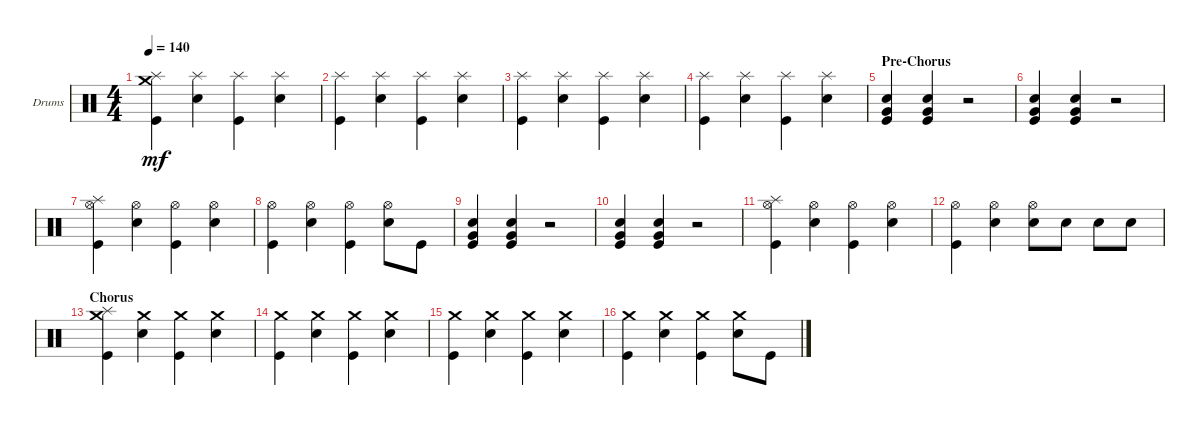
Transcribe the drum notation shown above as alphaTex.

\defaultSystemsLayout 4
\bracketExtendMode groupsimilarinstruments
\firstSystemTrackNameOrientation horizontal
\otherSystemsTrackNameOrientation horizontal
\track ("Drumkit" "Drums") {instrument percussion}
\staff {score}
\articulation defaults
\ts (4 4)
\tempo 140
\clef neutral
\ks c
("Splash (hit)" "Crash medium (hit)" "Kick (hit)").4{dy mf} ("Splash (hit)" "Snare (hit) 2").4 ("Splash (hit)" "Kick (hit)").4 ("Splash (hit)" "Snare (hit) 2").4 |
("Kick (hit)" "Splash (hit)").4 ("Splash (hit)" "Snare (hit) 2").4 ("Splash (hit)" "Kick (hit)").4 ("Splash (hit)" "Snare (hit) 2").4 |
("Kick (hit)" "Splash (hit)").4 ("Splash (hit)" "Snare (hit) 2").4 ("Splash (hit)" "Kick (hit)").4 ("Splash (hit)" "Snare (hit) 2").4 |
("Kick (hit)" "Splash (hit)").4 ("Splash (hit)" "Snare (hit) 2").4 ("Splash (hit)" "Kick (hit)").4 ("Splash (hit)" "Snare (hit) 2").4 |
\section ("" "Pre-Chorus")
("Kick (hit)" "Snare (hit) 2" "Very Low Tom (hit)").4 ("Snare (hit) 2" "Kick (hit)" "Very Low Tom (hit)").4 r.2 |
("Kick (hit)" "Snare (hit) 2" "Very Low Tom (hit)").4 ("Snare (hit) 2" "Kick (hit)" "Very Low Tom (hit)").4 r.2 |
("Splash (hit)" "Hi-Hat (open)" "Kick (hit)").4 ("Hi-Hat (open)" "Snare (hit) 2").4 ("Kick (hit)" "Hi-Hat (open)").4 ("Snare (hit) 2" "Hi-Hat (open)").4 |
("Hi-Hat (open)" "Kick (hit)").4 ("Hi-Hat (open)" "Snare (hit) 2").4 ("Kick (hit)" "Hi-Hat (open)").4 ("Snare (hit) 2" "Hi-Hat (open)").8 "Kick (hit)".8 |
("Kick (hit)" "Snare (hit) 2" "Very Low Tom (hit)").4 ("Snare (hit) 2" "Kick (hit)" "Very Low Tom (hit)").4 r.2 |
("Kick (hit)" "Snare (hit) 2" "Very Low Tom (hit)").4 ("Snare (hit) 2" "Kick (hit)" "Very Low Tom (hit)").4 r.2 |
("Splash (hit)" "Hi-Hat (open)" "Kick (hit)").4 ("Hi-Hat (open)" "Snare (hit) 2").4 ("Kick (hit)" "Hi-Hat (open)").4 ("Snare (hit) 2" "Hi-Hat (open)").4 |
("Hi-Hat (open)" "Kick (hit)").4 ("Hi-Hat (open)" "Snare (hit) 2").4 ("Hi-Hat (open)" "Snare (hit) 2").8 "Snare (hit) 2".8 "Snare (hit) 2".8 "Snare (hit) 2".8 |
\section ("" "Chorus")
("Splash (hit)" "Kick (hit)" "Crash medium (hit)").4 ("Snare (hit) 2" "Crash medium (hit)").4 ("Kick (hit)" "Crash medium (hit)").4 ("Snare (hit) 2" "Crash medium (hit)").4 |
("Kick (hit)" "Crash medium (hit)").4 ("Snare (hit) 2" "Crash medium (hit)").4 ("Kick (hit)" "Crash medium (hit)").4 ("Snare (hit) 2" "Crash medium (hit)").4 |
("Kick (hit)" "Crash medium (hit)").4 ("Snare (hit) 2" "Crash medium (hit)").4 ("Kick (hit)" "Crash medium (hit)").4 ("Snare (hit) 2" "Crash medium (hit)").4 |
("Kick (hit)" "Crash medium (hit)").4 ("Snare (hit) 2" "Crash medium (hit)").4 ("Kick (hit)" "Crash medium (hit)").4 ("Snare (hit) 2" "Crash medium (hit)").8 "Kick (hit)".8
